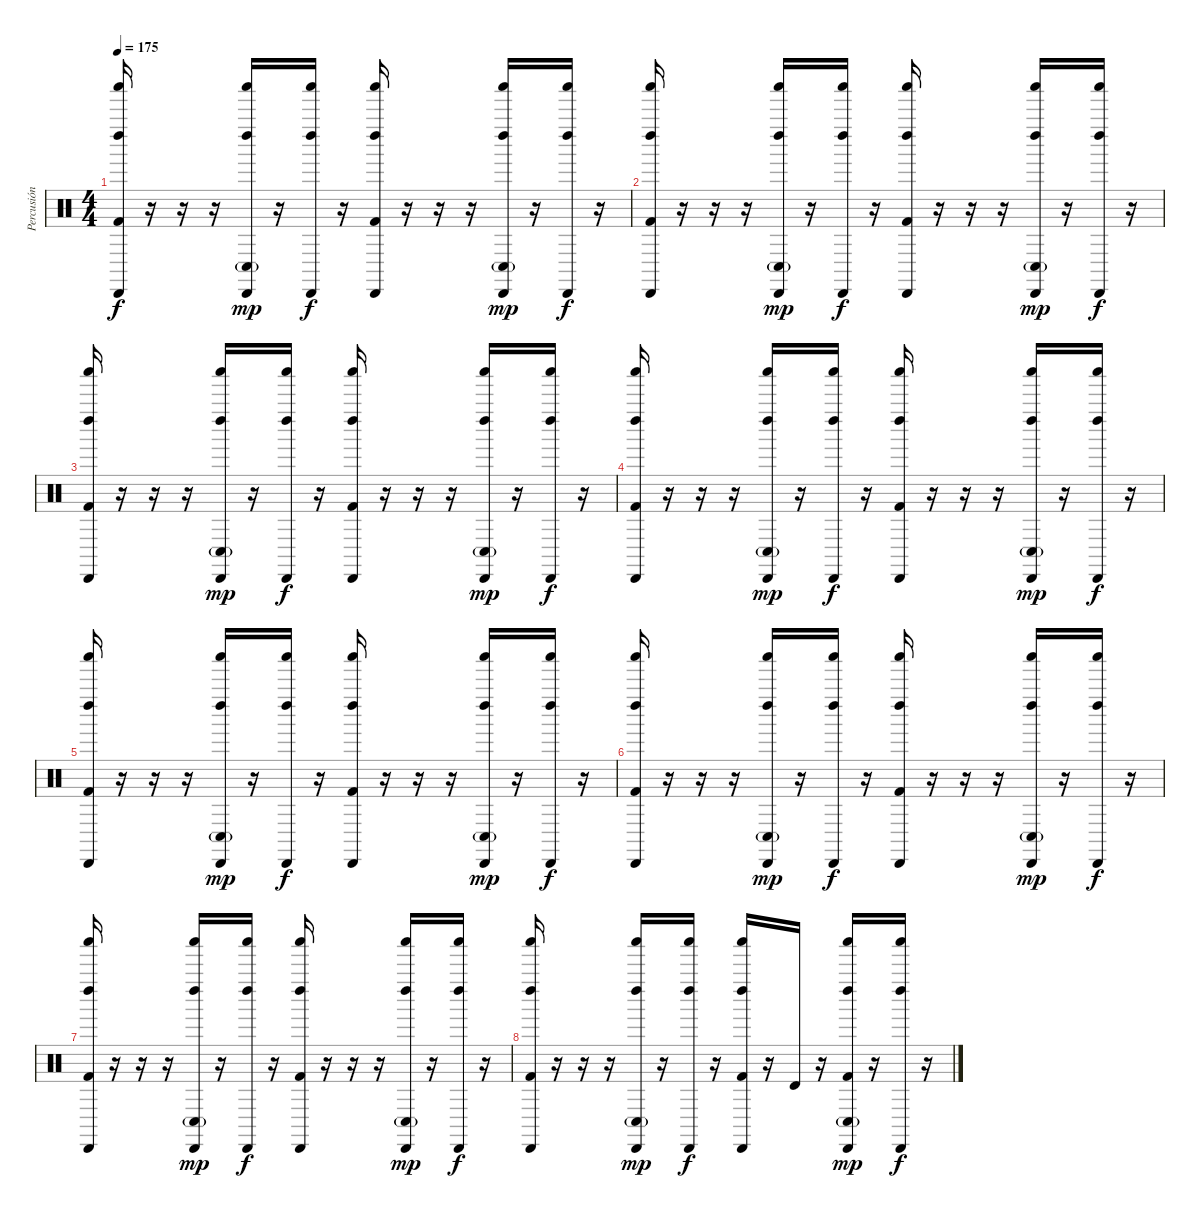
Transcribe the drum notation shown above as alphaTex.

\track ("Percusión" "Percusión") {instrument percussion}
\staff {score}
\articulation defaults
\ts (4 4)
\tempo 175
\clef neutral
\ks c
("Cabasa (hit)" "Shaker (hit)" "Kick (hit) 2" "Left Maraca (hit)").16{dy f} r.16 r.16 r.16 ("Cabasa (hit)" "Shaker (hit)" "Conga low (hit)"{g} "Left Maraca (hit)").16{dy mp} r.16 ("Cabasa (hit)" "Shaker (hit)" "Left Maraca (hit)").16{dy f} r.16 ("Cabasa (hit)" "Shaker (hit)" "Kick (hit) 2" "Left Maraca (hit)").16 r.16 r.16 r.16 ("Cabasa (hit)" "Shaker (hit)" "Conga low (hit)"{g} "Left Maraca (hit)").16{dy mp} r.16 ("Cabasa (hit)" "Shaker (hit)" "Left Maraca (hit)").16{dy f} r.16 |
("Cabasa (hit)" "Shaker (hit)" "Kick (hit) 2" "Left Maraca (hit)").16 r.16 r.16 r.16 ("Cabasa (hit)" "Shaker (hit)" "Conga low (hit)"{g} "Left Maraca (hit)").16{dy mp} r.16 ("Cabasa (hit)" "Shaker (hit)" "Left Maraca (hit)").16{dy f} r.16 ("Cabasa (hit)" "Shaker (hit)" "Kick (hit) 2" "Left Maraca (hit)").16 r.16 r.16 r.16 ("Cabasa (hit)" "Shaker (hit)" "Conga low (hit)"{g} "Left Maraca (hit)").16{dy mp} r.16 ("Cabasa (hit)" "Shaker (hit)" "Left Maraca (hit)").16{dy f} r.16 |
("Cabasa (hit)" "Shaker (hit)" "Kick (hit) 2" "Left Maraca (hit)").16 r.16 r.16 r.16 ("Cabasa (hit)" "Shaker (hit)" "Conga low (hit)"{g} "Left Maraca (hit)").16{dy mp} r.16 ("Cabasa (hit)" "Shaker (hit)" "Left Maraca (hit)").16{dy f} r.16 ("Cabasa (hit)" "Shaker (hit)" "Kick (hit) 2" "Left Maraca (hit)").16 r.16 r.16 r.16 ("Cabasa (hit)" "Shaker (hit)" "Conga low (hit)"{g} "Left Maraca (hit)").16{dy mp} r.16 ("Cabasa (hit)" "Shaker (hit)" "Left Maraca (hit)").16{dy f} r.16 |
("Cabasa (hit)" "Shaker (hit)" "Kick (hit) 2" "Left Maraca (hit)").16 r.16 r.16 r.16 ("Cabasa (hit)" "Shaker (hit)" "Conga low (hit)"{g} "Left Maraca (hit)").16{dy mp} r.16 ("Cabasa (hit)" "Shaker (hit)" "Left Maraca (hit)").16{dy f} r.16 ("Cabasa (hit)" "Shaker (hit)" "Kick (hit) 2" "Left Maraca (hit)").16 r.16 r.16 r.16 ("Cabasa (hit)" "Shaker (hit)" "Conga low (hit)"{g} "Left Maraca (hit)").16{dy mp} r.16 ("Cabasa (hit)" "Shaker (hit)" "Left Maraca (hit)").16{dy f} r.16 |
("Cabasa (hit)" "Shaker (hit)" "Kick (hit) 2" "Left Maraca (hit)").16 r.16 r.16 r.16 ("Cabasa (hit)" "Shaker (hit)" "Conga low (hit)"{g} "Left Maraca (hit)").16{dy mp} r.16 ("Cabasa (hit)" "Shaker (hit)" "Left Maraca (hit)").16{dy f} r.16 ("Cabasa (hit)" "Shaker (hit)" "Kick (hit) 2" "Left Maraca (hit)").16 r.16 r.16 r.16 ("Cabasa (hit)" "Shaker (hit)" "Conga low (hit)"{g} "Left Maraca (hit)").16{dy mp} r.16 ("Cabasa (hit)" "Shaker (hit)" "Left Maraca (hit)").16{dy f} r.16 |
("Cabasa (hit)" "Shaker (hit)" "Kick (hit) 2" "Left Maraca (hit)").16 r.16 r.16 r.16 ("Cabasa (hit)" "Shaker (hit)" "Conga low (hit)"{g} "Left Maraca (hit)").16{dy mp} r.16 ("Cabasa (hit)" "Shaker (hit)" "Left Maraca (hit)").16{dy f} r.16 ("Cabasa (hit)" "Shaker (hit)" "Kick (hit) 2" "Left Maraca (hit)").16 r.16 r.16 r.16 ("Cabasa (hit)" "Shaker (hit)" "Conga low (hit)"{g} "Left Maraca (hit)").16{dy mp} r.16 ("Cabasa (hit)" "Shaker (hit)" "Left Maraca (hit)").16{dy f} r.16 |
("Cabasa (hit)" "Shaker (hit)" "Kick (hit) 2" "Left Maraca (hit)").16 r.16 r.16 r.16 ("Cabasa (hit)" "Shaker (hit)" "Conga low (hit)"{g} "Left Maraca (hit)").16{dy mp} r.16 ("Cabasa (hit)" "Shaker (hit)" "Left Maraca (hit)").16{dy f} r.16 ("Cabasa (hit)" "Shaker (hit)" "Kick (hit) 2" "Left Maraca (hit)").16 r.16 r.16 r.16 ("Cabasa (hit)" "Shaker (hit)" "Conga low (hit)"{g} "Left Maraca (hit)").16{dy mp} r.16 ("Cabasa (hit)" "Shaker (hit)" "Left Maraca (hit)").16{dy f} r.16 |
("Cabasa (hit)" "Shaker (hit)" "Kick (hit) 2" "Left Maraca (hit)").16 r.16 r.16 r.16 ("Cabasa (hit)" "Shaker (hit)" "Conga low (hit)"{g} "Left Maraca (hit)").16{dy mp} r.16 ("Cabasa (hit)" "Shaker (hit)" "Left Maraca (hit)").16{dy f} r.16 ("Cabasa (hit)" "Shaker (hit)" "Kick (hit) 2" "Left Maraca (hit)").16 r.16 "Timbale high (hit)".16 r.16 ("Cabasa (hit)" "Shaker (hit)" "Conga low (hit)"{g} "Left Maraca (hit)" "Kick (hit) 2").16{dy mp} r.16 ("Cabasa (hit)" "Shaker (hit)" "Left Maraca (hit)").16{dy f} r.16
